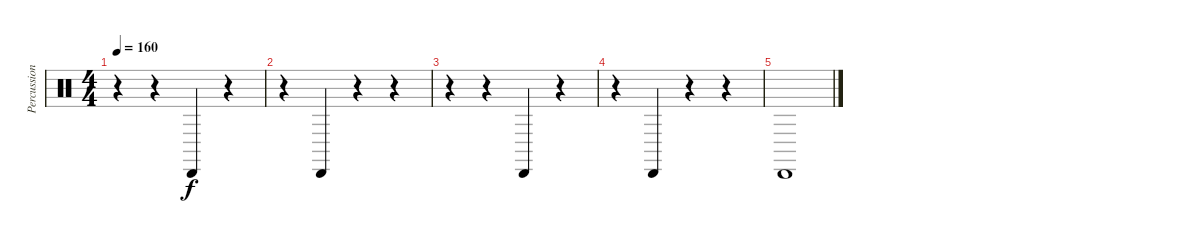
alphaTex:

\track ("Percussion" "Percussion") {instrument percussion}
\staff {score}
\articulation defaults
\ts (4 4)
\tempo 160
\clef neutral
\ks c
r.4{dy f} r.4 "Cabasa (hit)".4 r.4 |
r.4 "Cabasa (hit)".4 r.4 r.4 |
r.4 r.4 "Cabasa (hit)".4 r.4 |
r.4 "Cabasa (hit)".4 r.4 r.4 |
"Cabasa (hit)".1
